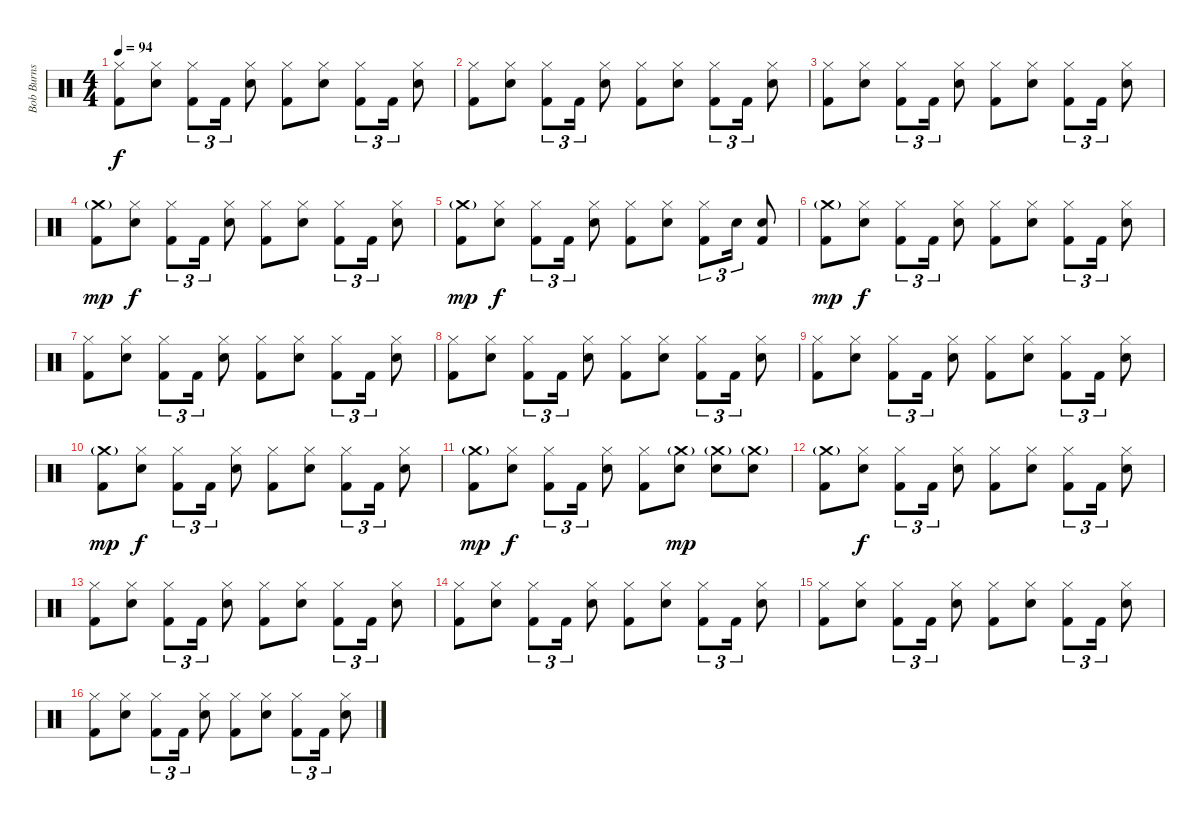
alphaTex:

\track ("Bob Burns (drums)" "Bob Burns ") {instrument percussion}
\staff {score}
\articulation defaults
\ts (4 4)
\tempo 94
\clef neutral
\ks c
("Hi-Hat (closed)" "Kick (hit) 2").8{dy f} ("Hi-Hat (closed)" "Electric Snare (hit)").8 ("Hi-Hat (closed)" "Kick (hit) 2").8{tu (3 2)} "Kick (hit) 2".16{tu (3 2)} ("Hi-Hat (closed)" "Electric Snare (hit)").8 ("Hi-Hat (closed)" "Kick (hit) 2").8 ("Hi-Hat (closed)" "Electric Snare (hit)").8 ("Hi-Hat (closed)" "Kick (hit) 2").8{tu (3 2)} "Kick (hit) 2".16{tu (3 2)} ("Hi-Hat (closed)" "Electric Snare (hit)").8 |
("Hi-Hat (closed)" "Kick (hit) 2").8 ("Hi-Hat (closed)" "Electric Snare (hit)").8 ("Hi-Hat (closed)" "Kick (hit) 2").8{tu (3 2)} "Kick (hit) 2".16{tu (3 2)} ("Hi-Hat (closed)" "Electric Snare (hit)").8 ("Hi-Hat (closed)" "Kick (hit) 2").8 ("Hi-Hat (closed)" "Electric Snare (hit)").8 ("Hi-Hat (closed)" "Kick (hit) 2").8{tu (3 2)} "Kick (hit) 2".16{tu (3 2)} ("Hi-Hat (closed)" "Electric Snare (hit)").8 |
("Hi-Hat (closed)" "Kick (hit) 2").8 ("Hi-Hat (closed)" "Electric Snare (hit)").8 ("Hi-Hat (closed)" "Kick (hit) 2").8{tu (3 2)} "Kick (hit) 2".16{tu (3 2)} ("Hi-Hat (closed)" "Electric Snare (hit)").8 ("Hi-Hat (closed)" "Kick (hit) 2").8 ("Hi-Hat (closed)" "Electric Snare (hit)").8 ("Hi-Hat (closed)" "Kick (hit) 2").8{tu (3 2)} "Kick (hit) 2".16{tu (3 2)} ("Hi-Hat (closed)" "Electric Snare (hit)").8 |
("Crash medium (hit)"{g} "Kick (hit) 2").8{dy mp} ("Hi-Hat (closed)" "Electric Snare (hit)").8{dy f} ("Hi-Hat (closed)" "Kick (hit) 2").8{tu (3 2)} "Kick (hit) 2".16{tu (3 2)} ("Hi-Hat (closed)" "Electric Snare (hit)").8 ("Hi-Hat (closed)" "Kick (hit) 2").8 ("Hi-Hat (closed)" "Electric Snare (hit)").8 ("Hi-Hat (closed)" "Kick (hit) 2").8{tu (3 2)} "Kick (hit) 2".16{tu (3 2)} ("Hi-Hat (closed)" "Electric Snare (hit)").8 |
("Crash medium (hit)"{g} "Kick (hit) 2").8{dy mp} ("Hi-Hat (closed)" "Electric Snare (hit)").8{dy f} ("Hi-Hat (closed)" "Kick (hit) 2").8{tu (3 2)} "Kick (hit) 2".16{tu (3 2)} ("Hi-Hat (closed)" "Electric Snare (hit)").8 ("Hi-Hat (closed)" "Kick (hit) 2").8 ("Hi-Hat (closed)" "Electric Snare (hit)").8 ("Hi-Hat (closed)" "Kick (hit) 2").8{tu (3 2)} "Electric Snare (hit)".16{tu (3 2)} ("Electric Snare (hit)" "Kick (hit) 2").8 |
\section ("" "")
("Crash medium (hit)"{g} "Kick (hit) 2").8{dy mp} ("Hi-Hat (closed)" "Electric Snare (hit)").8{dy f} ("Hi-Hat (closed)" "Kick (hit) 2").8{tu (3 2)} "Kick (hit) 2".16{tu (3 2)} ("Hi-Hat (closed)" "Electric Snare (hit)").8 ("Hi-Hat (closed)" "Kick (hit) 2").8 ("Hi-Hat (closed)" "Electric Snare (hit)").8 ("Hi-Hat (closed)" "Kick (hit) 2").8{tu (3 2)} "Kick (hit) 2".16{tu (3 2)} ("Hi-Hat (closed)" "Electric Snare (hit)").8 |
("Hi-Hat (closed)" "Kick (hit) 2").8 ("Hi-Hat (closed)" "Electric Snare (hit)").8 ("Hi-Hat (closed)" "Kick (hit) 2").8{tu (3 2)} "Kick (hit) 2".16{tu (3 2)} ("Hi-Hat (closed)" "Electric Snare (hit)").8 ("Hi-Hat (closed)" "Kick (hit) 2").8 ("Hi-Hat (closed)" "Electric Snare (hit)").8 ("Hi-Hat (closed)" "Kick (hit) 2").8{tu (3 2)} "Kick (hit) 2".16{tu (3 2)} ("Hi-Hat (closed)" "Electric Snare (hit)").8 |
("Hi-Hat (closed)" "Kick (hit) 2").8 ("Hi-Hat (closed)" "Electric Snare (hit)").8 ("Hi-Hat (closed)" "Kick (hit) 2").8{tu (3 2)} "Kick (hit) 2".16{tu (3 2)} ("Hi-Hat (closed)" "Electric Snare (hit)").8 ("Hi-Hat (closed)" "Kick (hit) 2").8 ("Hi-Hat (closed)" "Electric Snare (hit)").8 ("Hi-Hat (closed)" "Kick (hit) 2").8{tu (3 2)} "Kick (hit) 2".16{tu (3 2)} ("Hi-Hat (closed)" "Electric Snare (hit)").8 |
("Hi-Hat (closed)" "Kick (hit) 2").8 ("Hi-Hat (closed)" "Electric Snare (hit)").8 ("Hi-Hat (closed)" "Kick (hit) 2").8{tu (3 2)} "Kick (hit) 2".16{tu (3 2)} ("Hi-Hat (closed)" "Electric Snare (hit)").8 ("Hi-Hat (closed)" "Kick (hit) 2").8 ("Hi-Hat (closed)" "Electric Snare (hit)").8 ("Hi-Hat (closed)" "Kick (hit) 2").8{tu (3 2)} "Kick (hit) 2".16{tu (3 2)} ("Hi-Hat (closed)" "Electric Snare (hit)").8 |
("Crash medium (hit)"{g} "Kick (hit) 2").8{dy mp} ("Hi-Hat (closed)" "Electric Snare (hit)").8{dy f} ("Hi-Hat (closed)" "Kick (hit) 2").8{tu (3 2)} "Kick (hit) 2".16{tu (3 2)} ("Hi-Hat (closed)" "Electric Snare (hit)").8 ("Hi-Hat (closed)" "Kick (hit) 2").8 ("Hi-Hat (closed)" "Electric Snare (hit)").8 ("Hi-Hat (closed)" "Kick (hit) 2").8{tu (3 2)} "Kick (hit) 2".16{tu (3 2)} ("Hi-Hat (closed)" "Electric Snare (hit)").8 |
("Crash medium (hit)"{g} "Kick (hit) 2").8{dy mp} ("Hi-Hat (closed)" "Electric Snare (hit)").8{dy f} ("Hi-Hat (closed)" "Kick (hit) 2").8{tu (3 2)} "Kick (hit) 2".16{tu (3 2)} ("Hi-Hat (closed)" "Electric Snare (hit)").8 ("Hi-Hat (closed)" "Kick (hit) 2").8 ("Crash medium (hit)"{g} "Electric Snare (hit)").8{dy mp} ("Crash medium (hit)"{g} "Electric Snare (hit)").8 ("Crash medium (hit)"{g} "Electric Snare (hit)").8 |
("Crash medium (hit)"{g} "Kick (hit) 2").8 ("Hi-Hat (closed)" "Electric Snare (hit)").8{dy f} ("Hi-Hat (closed)" "Kick (hit) 2").8{tu (3 2)} "Kick (hit) 2".16{tu (3 2)} ("Hi-Hat (closed)" "Electric Snare (hit)").8 ("Hi-Hat (closed)" "Kick (hit) 2").8 ("Hi-Hat (closed)" "Electric Snare (hit)").8 ("Hi-Hat (closed)" "Kick (hit) 2").8{tu (3 2)} "Kick (hit) 2".16{tu (3 2)} ("Hi-Hat (closed)" "Electric Snare (hit)").8 |
("Hi-Hat (closed)" "Kick (hit) 2").8 ("Hi-Hat (closed)" "Electric Snare (hit)").8 ("Hi-Hat (closed)" "Kick (hit) 2").8{tu (3 2)} "Kick (hit) 2".16{tu (3 2)} ("Hi-Hat (closed)" "Electric Snare (hit)").8 ("Hi-Hat (closed)" "Kick (hit) 2").8 ("Hi-Hat (closed)" "Electric Snare (hit)").8 ("Hi-Hat (closed)" "Kick (hit) 2").8{tu (3 2)} "Kick (hit) 2".16{tu (3 2)} ("Hi-Hat (closed)" "Electric Snare (hit)").8 |
("Hi-Hat (closed)" "Kick (hit) 2").8 ("Hi-Hat (closed)" "Electric Snare (hit)").8 ("Hi-Hat (closed)" "Kick (hit) 2").8{tu (3 2)} "Kick (hit) 2".16{tu (3 2)} ("Hi-Hat (closed)" "Electric Snare (hit)").8 ("Hi-Hat (closed)" "Kick (hit) 2").8 ("Hi-Hat (closed)" "Electric Snare (hit)").8 ("Hi-Hat (closed)" "Kick (hit) 2").8{tu (3 2)} "Kick (hit) 2".16{tu (3 2)} ("Hi-Hat (closed)" "Electric Snare (hit)").8 |
("Hi-Hat (closed)" "Kick (hit) 2").8 ("Hi-Hat (closed)" "Electric Snare (hit)").8 ("Hi-Hat (closed)" "Kick (hit) 2").8{tu (3 2)} "Kick (hit) 2".16{tu (3 2)} ("Hi-Hat (closed)" "Electric Snare (hit)").8 ("Hi-Hat (closed)" "Kick (hit) 2").8 ("Hi-Hat (closed)" "Electric Snare (hit)").8 ("Hi-Hat (closed)" "Kick (hit) 2").8{tu (3 2)} "Kick (hit) 2".16{tu (3 2)} ("Hi-Hat (closed)" "Electric Snare (hit)").8 |
("Hi-Hat (closed)" "Kick (hit) 2").8 ("Hi-Hat (closed)" "Electric Snare (hit)").8 ("Hi-Hat (closed)" "Kick (hit) 2").8{tu (3 2)} "Kick (hit) 2".16{tu (3 2)} ("Hi-Hat (closed)" "Electric Snare (hit)").8 ("Hi-Hat (closed)" "Kick (hit) 2").8 ("Hi-Hat (closed)" "Electric Snare (hit)").8 ("Hi-Hat (closed)" "Kick (hit) 2").8{tu (3 2)} "Kick (hit) 2".16{tu (3 2)} ("Hi-Hat (closed)" "Electric Snare (hit)").8
